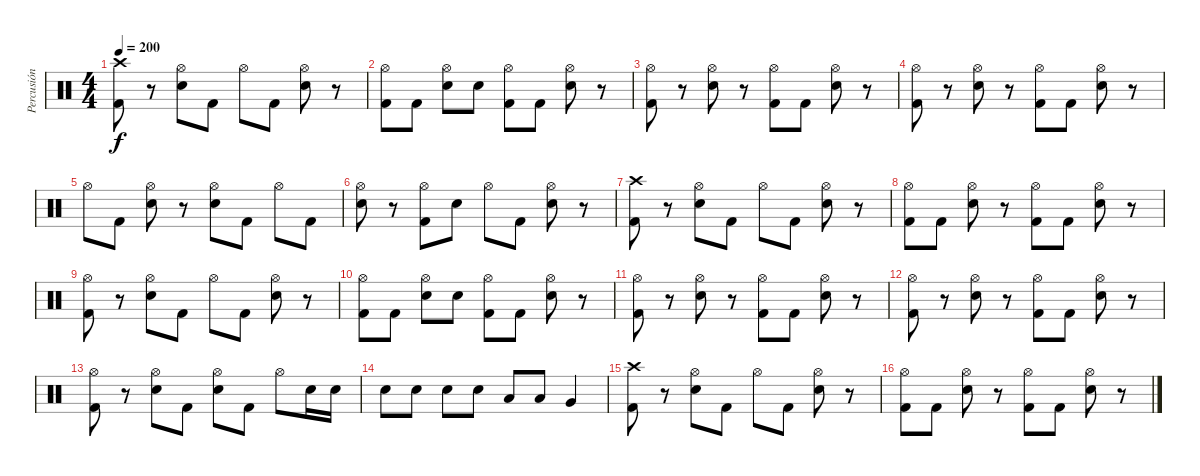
\track ("Percusión" "Percusión") {instrument percussion}
\staff {score}
\articulation defaults
\ts (4 4)
\tempo 200
\clef neutral
\ks c
("Kick (hit) 2" "Crash high (hit)").8{dy f} r.8 ("Snare (hit) 2" "Hi-Hat (open)").8 "Kick (hit) 2".8 "Hi-Hat (open)".8 "Kick (hit) 2".8 ("Snare (hit) 2" "Hi-Hat (open)").8 r.8 |
("Kick (hit) 2" "Hi-Hat (open)").8 "Kick (hit) 2".8 ("Snare (hit) 2" "Hi-Hat (open)").8 "Snare (hit) 2".8 ("Kick (hit) 2" "Hi-Hat (open)").8 "Kick (hit) 2".8 ("Snare (hit) 2" "Hi-Hat (open)").8 r.8 |
("Kick (hit) 2" "Hi-Hat (open)").8 r.8 ("Snare (hit) 2" "Hi-Hat (open)").8 r.8 ("Kick (hit) 2" "Hi-Hat (open)").8 "Kick (hit) 2".8 ("Snare (hit) 2" "Hi-Hat (open)").8 r.8 |
("Kick (hit) 2" "Hi-Hat (open)").8 r.8 ("Snare (hit) 2" "Hi-Hat (open)").8 r.8 ("Kick (hit) 2" "Hi-Hat (open)").8 "Kick (hit) 2".8 ("Snare (hit) 2" "Hi-Hat (open)").8 r.8 |
"Hi-Hat (open)".8 "Kick (hit) 2".8 ("Snare (hit) 2" "Hi-Hat (open)").8 r.8 ("Snare (hit) 2" "Hi-Hat (open)").8 "Kick (hit) 2".8 "Hi-Hat (open)".8 "Kick (hit) 2".8 |
("Snare (hit) 2" "Hi-Hat (open)").8 r.8 ("Kick (hit) 2" "Hi-Hat (open)").8 "Snare (hit) 2".8 "Hi-Hat (open)".8 "Kick (hit) 2".8 ("Snare (hit) 2" "Hi-Hat (open)").8 r.8 |
("Kick (hit) 2" "Crash high (hit)").8 r.8 ("Snare (hit) 2" "Hi-Hat (open)").8 "Kick (hit) 2".8 "Hi-Hat (open)".8 "Kick (hit) 2".8 ("Snare (hit) 2" "Hi-Hat (open)").8 r.8 |
("Kick (hit) 2" "Hi-Hat (open)").8 "Kick (hit) 2".8 ("Snare (hit) 2" "Hi-Hat (open)").8 r.8 ("Kick (hit) 2" "Hi-Hat (open)").8 "Kick (hit) 2".8 ("Snare (hit) 2" "Hi-Hat (open)").8 r.8 |
("Kick (hit) 2" "Hi-Hat (open)").8 r.8 ("Snare (hit) 2" "Hi-Hat (open)").8 "Kick (hit) 2".8 "Hi-Hat (open)".8 "Kick (hit) 2".8 ("Snare (hit) 2" "Hi-Hat (open)").8 r.8 |
("Kick (hit) 2" "Hi-Hat (open)").8 "Kick (hit) 2".8 ("Snare (hit) 2" "Hi-Hat (open)").8 "Snare (hit) 2".8 ("Kick (hit) 2" "Hi-Hat (open)").8 "Kick (hit) 2".8 ("Snare (hit) 2" "Hi-Hat (open)").8 r.8 |
("Kick (hit) 2" "Hi-Hat (open)").8 r.8 ("Snare (hit) 2" "Hi-Hat (open)").8 r.8 ("Kick (hit) 2" "Hi-Hat (open)").8 "Kick (hit) 2".8 ("Snare (hit) 2" "Hi-Hat (open)").8 r.8 |
("Kick (hit) 2" "Hi-Hat (open)").8 r.8 ("Snare (hit) 2" "Hi-Hat (open)").8 r.8 ("Kick (hit) 2" "Hi-Hat (open)").8 "Kick (hit) 2".8 ("Snare (hit) 2" "Hi-Hat (open)").8 r.8 |
("Kick (hit) 2" "Hi-Hat (open)").8 r.8 ("Snare (hit) 2" "Hi-Hat (open)").8 "Kick (hit) 2".8 ("Snare (hit) 2" "Hi-Hat (open)").8 "Kick (hit) 2".8 "Hi-Hat (open)".8 "Snare (hit) 2".16 "Snare (hit) 2".16 |
"Snare (hit) 2".8 "Snare (hit) 2".8 "Snare (hit) 2".8 "Snare (hit) 2".8 "Low Tom (hit)".8 "Low Tom (hit)".8 "Very Low Tom (hit)".4 |
("Kick (hit) 2" "Crash high (hit)").8 r.8 ("Snare (hit) 2" "Hi-Hat (open)").8 "Kick (hit) 2".8 "Hi-Hat (open)".8 "Kick (hit) 2".8 ("Snare (hit) 2" "Hi-Hat (open)").8 r.8 |
("Kick (hit) 2" "Hi-Hat (open)").8 "Kick (hit) 2".8 ("Snare (hit) 2" "Hi-Hat (open)").8 r.8 ("Kick (hit) 2" "Hi-Hat (open)").8 "Kick (hit) 2".8 ("Snare (hit) 2" "Hi-Hat (open)").8 r.8
